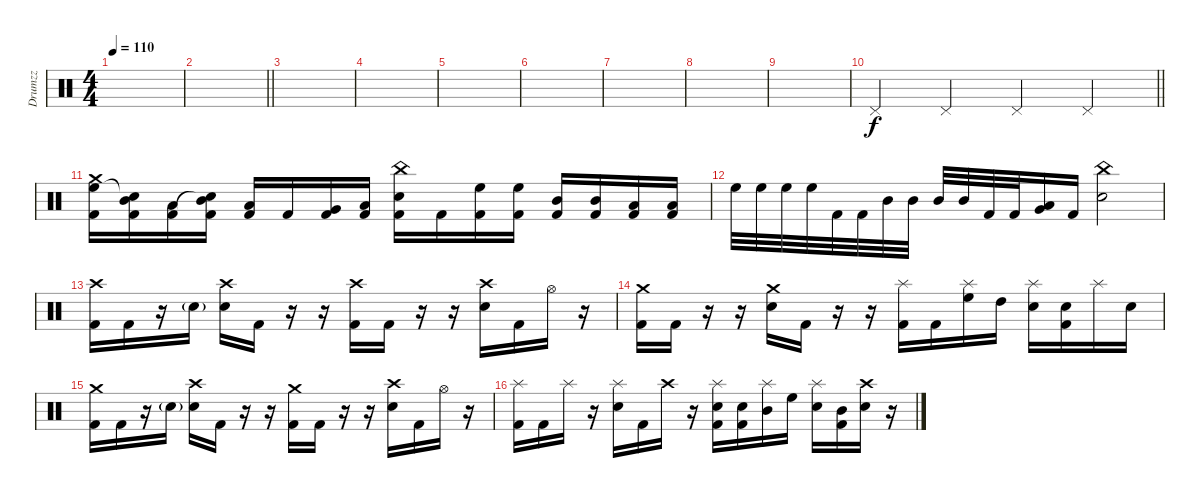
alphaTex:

\track ("Drumzz" "Drumzz") {instrument percussion}
\staff {score}
\articulation defaults
\ts (4 4)
\tempo 110
\clef neutral
\ks c
|
\barLineRight lightlight
|
|
|
|
|
|
|
|
\barLineRight lightlight "Pedal Hi-Hat (hit)".4 "Pedal Hi-Hat (hit)".4 "Pedal Hi-Hat (hit)".4 "Pedal Hi-Hat (hit)".4
|
("Crash medium (hit)" "High Floor Tom (hit)" "Kick (hit) 2").16 ("Mid Tom (hit)" "Snare (hit)"{t} "Kick (hit) 2").16 ("Low Tom (hit)" "Kick (hit) 2").16 ("Mid Tom (hit)" "Snare (hit)"{t} "Kick (hit) 2").16 ("Low Tom (hit)" "Kick (hit) 2").16 "Kick (hit) 2".16 ("Very Low Tom (hit)" "Kick (hit) 2").16 ("Low Floor Tom (hit)" "Kick (hit) 2").16 ("China (hit)" "Snare (hit) 2" "Kick (hit) 2").16 "Kick (hit) 2".16 ("High Floor Tom (hit)" "Kick (hit) 2").16 ("High Floor Tom (hit)" "Kick (hit) 2").16 ("Mid Tom (hit)" "Kick (hit) 2").16 ("Mid Tom (hit)" "Kick (hit) 2").16 ("Low Tom (hit)" "Kick (hit) 2").16 ("Low Tom (hit)" "Kick (hit) 2").16 |
"High Floor Tom (hit)".32 "High Floor Tom (hit)".32 "High Floor Tom (hit)".32 "High Floor Tom (hit)".32 "Kick (hit) 2".32 "Kick (hit) 2".32 "Mid Tom (hit)".32 "Mid Tom (hit)".32 "Mid Tom (hit)".32 "Mid Tom (hit)".32 "Kick (hit) 2".32 "Kick (hit) 2".32 ("Very Low Tom (hit)" "Low Floor Tom (hit)").16 "Kick (hit) 2".16 ("China (hit)" "Snare (hit) 2").2 |
("Crash high (hit)" "Kick (hit) 2").16{volume 14} "Kick (hit) 2".16 r.16 "Snare (hit) 2"{g}.16 ("Crash high (hit)" "Snare (hit) 2").16 "Kick (hit) 2".16 r.16 r.16 ("Crash high (hit)" "Kick (hit) 2").16 "Kick (hit) 2".16 r.16 r.16 ("Crash high (hit)" "Snare (hit) 2").16 "Kick (hit) 2".16 "Hi-Hat (open)".16 r.16 |
("Crash medium (hit)" "Kick (hit) 2").16 "Kick (hit) 2".16 r.16 r.16 ("Crash medium (hit)" "Snare (hit) 2").16 "Kick (hit) 2".16 r.16 r.16 ("Splash (hit)" "Kick (hit) 2").16 "Kick (hit) 2".16 ("Splash (hit)" "High Floor Tom (hit)").16 "High Tom (hit)".16 ("Splash (hit)" "Snare (hit) 2").16 ("Snare (hit) 2" "Kick (hit) 2").16 "Splash (hit)".16 "Snare (hit) 2".16 |
("Crash medium (hit)" "Kick (hit) 2").16 "Kick (hit) 2".16 r.16 "Snare (hit) 2"{g}.16 ("Crash high (hit)" "Snare (hit) 2").16 "Kick (hit) 2".16 r.16 r.16 ("Crash medium (hit)" "Kick (hit) 2").16 "Kick (hit) 2".16 r.16 r.16 ("Crash high (hit)" "Snare (hit) 2").16 "Kick (hit) 2".16 "Hi-Hat (open)".16 r.16 |
("Splash (hit)" "Kick (hit) 2").16 "Kick (hit) 2".16 "Splash (hit)".16 r.16 ("Splash (hit)" "Snare (hit) 2").16 "Kick (hit) 2".16 "Crash high (hit)".16 r.16 ("Splash (hit)" "Snare (hit) 2" "Kick (hit) 2").16 ("Snare (hit) 2" "Kick (hit) 2").16 ("Splash (hit)" "Mid Tom (hit)").16 "High Floor Tom (hit)".16 ("Splash (hit)" "Snare (hit) 2").16 ("Mid Tom (hit)" "Kick (hit) 2").16 ("Crash high (hit)" "Snare (hit) 2").16 r.16
